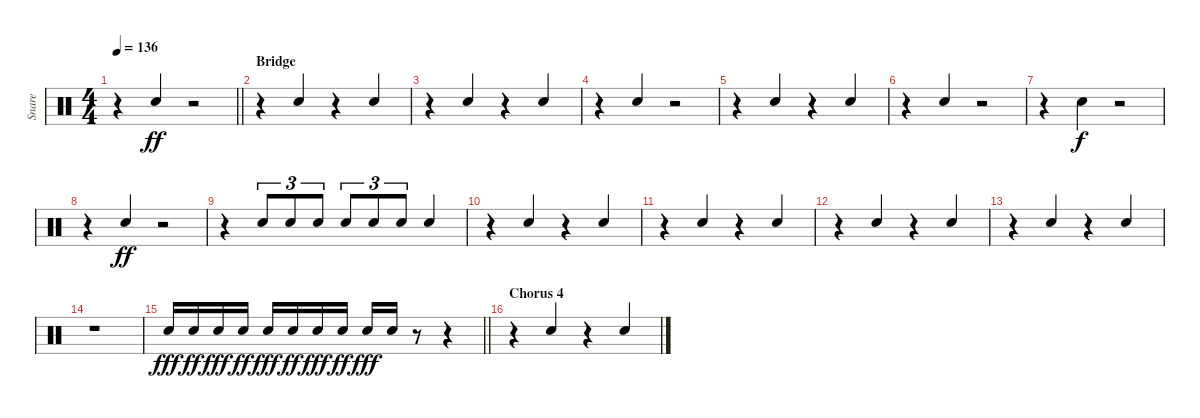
\track ("Snare" "Snare") {instrument percussion}
\staff {score}
\articulation defaults
\ts (4 4)
\tempo 136
\clef neutral
\barLineRight lightlight
\ks c
r.4{dy ff beam merge} "Electric Snare (hit)".4{beam Up} r.2 |
\section ("" "Bridge")
r.4{volume 6} "Electric Snare (hit)".4{beam Up} r.4{beam merge} "Electric Snare (hit)".4{beam Up} |
r.4 "Electric Snare (hit)".4{beam Up} r.4{beam merge} "Electric Snare (hit)".4{beam Up} |
r.4{beam merge} "Electric Snare (hit)".4{beam Up} r.2 |
r.4 "Electric Snare (hit)".4{beam Up} r.4{beam merge} "Electric Snare (hit)".4{beam Up} |
r.4 "Electric Snare (hit)".4{beam Up} r.2 |
r.4 "Electric Snare (hit)".4{dy f} r.2 |
r.4 "Electric Snare (hit)".4{dy ff beam Up} r.2 |
r.4 "Electric Snare (hit)".8{tu (3 2) beam Up} "Electric Snare (hit)".8{tu (3 2) beam Up} "Electric Snare (hit)".8{tu (3 2) beam Up} "Electric Snare (hit)".8{tu (3 2) beam Up} "Electric Snare (hit)".8{tu (3 2) beam Up} "Electric Snare (hit)".8{tu (3 2) beam Up} "Electric Snare (hit)".4{beam Up} |
r.4 "Electric Snare (hit)".4{beam Up} r.4{beam merge} "Electric Snare (hit)".4{beam Up} |
r.4 "Electric Snare (hit)".4{beam Up} r.4{beam merge} "Electric Snare (hit)".4{beam Up} |
r.4 "Electric Snare (hit)".4{beam Up} r.4{beam merge} "Electric Snare (hit)".4{beam Up} |
r.4 "Electric Snare (hit)".4{beam Up} r.4{beam merge} "Electric Snare (hit)".4{beam Up} |
r.1 |
\barLineRight lightlight "Electric Snare (hit)".16{dy fff volume 13 beam Up} "Electric Snare (hit)".16{dy ff beam Up} "Electric Snare (hit)".16{dy fff beam Up} "Electric Snare (hit)".16{dy ff beam Up} "Electric Snare (hit)".16{dy fff beam Up} "Electric Snare (hit)".16{dy ff beam Up} "Electric Snare (hit)".16{dy fff beam Up} "Electric Snare (hit)".16{dy ff beam Up} "Electric Snare (hit)".16{dy fff beam Up} "Electric Snare (hit)".16{beam Up}
r.8 r.4 |
\section ("" "Chorus 4")
r.4 "Electric Snare (hit)".4{beam Up} r.4{beam merge} "Electric Snare (hit)".4{beam Up}
